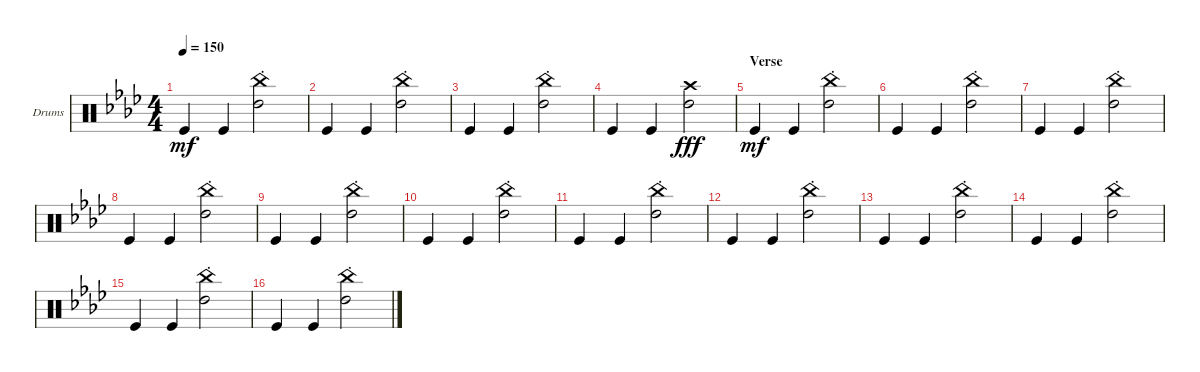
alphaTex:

\bracketExtendMode groupsimilarinstruments
\firstSystemTrackNameOrientation horizontal
\otherSystemsTrackNameOrientation horizontal
\track ("Drums" "Drums") {instrument percussion}
\staff {score}
\articulation defaults
\ts (4 4)
\tempo 150
\clef neutral
\ks ab "Kick (hit)".4{dy mf} "Kick (hit)".4
("High Tom (hit)"{st} "China (hit)"{st}).2 |
"Kick (hit)".4 "Kick (hit)".4 ("High Tom (hit)" "China (hit)"{st}).2 |
"Kick (hit)".4 "Kick (hit)".4 ("High Tom (hit)" "China (hit)"{st}).2 |
"Kick (hit)".4 "Kick (hit)".4 ("High Tom (hit)" "Crash high (hit)").2{dy fff} |
\section ("" "Verse")
"Kick (hit)".4{dy mf} "Kick (hit)".4 ("High Tom (hit)" "China (hit)"{st}).2 |
"Kick (hit)".4 "Kick (hit)".4 ("High Tom (hit)" "China (hit)"{st}).2 |
"Kick (hit)".4 "Kick (hit)".4 ("High Tom (hit)" "China (hit)"{st}).2 |
"Kick (hit)".4 "Kick (hit)".4 ("High Tom (hit)" "China (hit)"{st}).2 |
"Kick (hit)".4 "Kick (hit)".4 ("High Tom (hit)" "China (hit)"{st}).2 |
"Kick (hit)".4 "Kick (hit)".4 ("High Tom (hit)" "China (hit)"{st}).2 |
"Kick (hit)".4 "Kick (hit)".4 ("High Tom (hit)" "China (hit)"{st}).2 |
"Kick (hit)".4 "Kick (hit)".4 ("High Tom (hit)" "China (hit)"{st}).2 |
"Kick (hit)".4 "Kick (hit)".4 ("High Tom (hit)" "China (hit)"{st}).2 |
"Kick (hit)".4 "Kick (hit)".4 ("High Tom (hit)" "China (hit)"{st}).2 |
"Kick (hit)".4 "Kick (hit)".4 ("High Tom (hit)" "China (hit)"{st}).2 |
"Kick (hit)".4 "Kick (hit)".4 ("High Tom (hit)" "China (hit)"{st}).2
